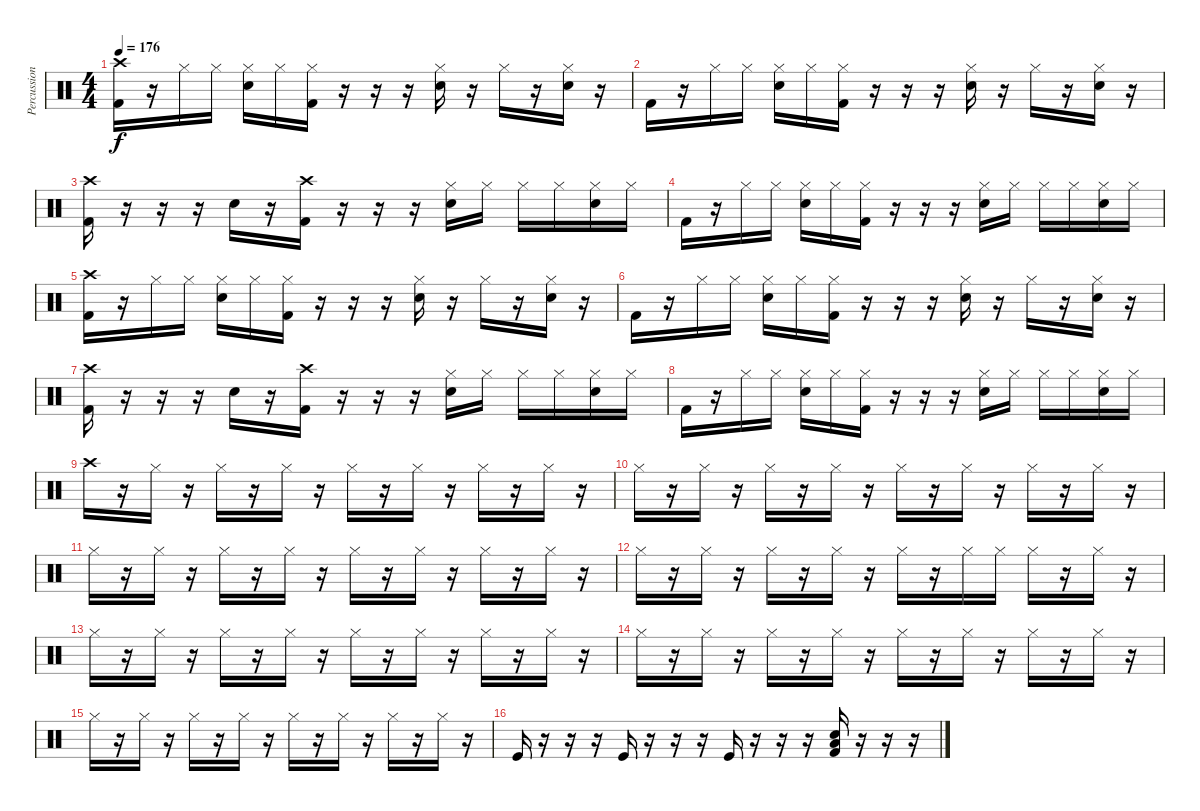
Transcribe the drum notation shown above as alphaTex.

\track ("Percussion" "Percussion") {instrument percussion}
\staff {score}
\articulation defaults
\ts (4 4)
\tempo 176
\clef neutral
\ks c
("Kick (hit) 2" "Crash high (hit)").16{dy f} r.16 "Hi-Hat (closed)".16 "Hi-Hat (closed)".16 ("Electric Snare (hit)" "Hi-Hat (closed)").16 "Hi-Hat (closed)".16 ("Kick (hit) 2" "Hi-Hat (closed)").16 r.16 r.16 r.16 ("Electric Snare (hit)" "Hi-Hat (closed)").16 r.16 "Hi-Hat (closed)".16 r.16 ("Electric Snare (hit)" "Hi-Hat (closed)").16 r.16 |
"Kick (hit) 2".16 r.16 "Hi-Hat (closed)".16 "Hi-Hat (closed)".16 ("Electric Snare (hit)" "Hi-Hat (closed)").16 "Hi-Hat (closed)".16 ("Kick (hit) 2" "Hi-Hat (closed)").16 r.16 r.16 r.16 ("Electric Snare (hit)" "Hi-Hat (closed)").16 r.16 "Hi-Hat (closed)".16 r.16 ("Electric Snare (hit)" "Hi-Hat (closed)").16 r.16 |
("Kick (hit) 2" "Crash high (hit)").16 r.16 r.16 r.16 "Electric Snare (hit)".16 r.16 ("Kick (hit) 2" "Crash high (hit)").16 r.16 r.16 r.16 ("Electric Snare (hit)" "Hi-Hat (closed)").16 "Hi-Hat (closed)".16 "Hi-Hat (closed)".16 "Hi-Hat (closed)".16 ("Electric Snare (hit)" "Hi-Hat (closed)").16 "Hi-Hat (closed)".16 |
"Kick (hit) 2".16 r.16 "Hi-Hat (closed)".16 "Hi-Hat (closed)".16 ("Electric Snare (hit)" "Hi-Hat (closed)").16 "Hi-Hat (closed)".16 ("Kick (hit) 2" "Hi-Hat (closed)").16 r.16 r.16 r.16 ("Electric Snare (hit)" "Hi-Hat (closed)").16 "Hi-Hat (closed)".16 "Hi-Hat (closed)".16 "Hi-Hat (closed)".16 ("Electric Snare (hit)" "Hi-Hat (closed)").16 "Hi-Hat (closed)".16 |
("Kick (hit) 2" "Crash high (hit)").16 r.16 "Hi-Hat (closed)".16 "Hi-Hat (closed)".16 ("Electric Snare (hit)" "Hi-Hat (closed)").16 "Hi-Hat (closed)".16 ("Kick (hit) 2" "Hi-Hat (closed)").16 r.16 r.16 r.16 ("Electric Snare (hit)" "Hi-Hat (closed)").16 r.16 "Hi-Hat (closed)".16 r.16 ("Electric Snare (hit)" "Hi-Hat (closed)").16 r.16 |
"Kick (hit) 2".16 r.16 "Hi-Hat (closed)".16 "Hi-Hat (closed)".16 ("Electric Snare (hit)" "Hi-Hat (closed)").16 "Hi-Hat (closed)".16 ("Kick (hit) 2" "Hi-Hat (closed)").16 r.16 r.16 r.16 ("Electric Snare (hit)" "Hi-Hat (closed)").16 r.16 "Hi-Hat (closed)".16 r.16 ("Electric Snare (hit)" "Hi-Hat (closed)").16 r.16 |
("Kick (hit) 2" "Crash high (hit)").16 r.16 r.16 r.16 "Electric Snare (hit)".16 r.16 ("Kick (hit) 2" "Crash high (hit)").16 r.16 r.16 r.16 ("Electric Snare (hit)" "Hi-Hat (closed)").16 "Hi-Hat (closed)".16 "Hi-Hat (closed)".16 "Hi-Hat (closed)".16 ("Electric Snare (hit)" "Hi-Hat (closed)").16 "Hi-Hat (closed)".16 |
"Kick (hit) 2".16 r.16 "Hi-Hat (closed)".16 "Hi-Hat (closed)".16 ("Electric Snare (hit)" "Hi-Hat (closed)").16 "Hi-Hat (closed)".16 ("Kick (hit) 2" "Hi-Hat (closed)").16 r.16 r.16 r.16 ("Electric Snare (hit)" "Hi-Hat (closed)").16 "Hi-Hat (closed)".16 "Hi-Hat (closed)".16 "Hi-Hat (closed)".16 ("Electric Snare (hit)" "Hi-Hat (closed)").16 "Hi-Hat (closed)".16 |
"Crash high (hit)".16 r.16 "Hi-Hat (closed)".16 r.16 "Hi-Hat (closed)".16 r.16 "Hi-Hat (closed)".16 r.16 "Hi-Hat (closed)".16 r.16 "Hi-Hat (closed)".16 r.16 "Hi-Hat (closed)".16 r.16 "Hi-Hat (closed)".16 r.16 |
"Hi-Hat (closed)".16 r.16 "Hi-Hat (closed)".16 r.16 "Hi-Hat (closed)".16 r.16 "Hi-Hat (closed)".16 r.16 "Hi-Hat (closed)".16 r.16 "Hi-Hat (closed)".16 r.16 "Hi-Hat (closed)".16 r.16 "Hi-Hat (closed)".16 r.16 |
"Hi-Hat (closed)".16 r.16 "Hi-Hat (closed)".16 r.16 "Hi-Hat (closed)".16 r.16 "Hi-Hat (closed)".16 r.16 "Hi-Hat (closed)".16 r.16 "Hi-Hat (closed)".16 r.16 "Hi-Hat (closed)".16 r.16 "Hi-Hat (closed)".16 r.16 |
"Hi-Hat (closed)".16 r.16 "Hi-Hat (closed)".16 r.16 "Hi-Hat (closed)".16 r.16 "Hi-Hat (closed)".16 r.16 "Hi-Hat (closed)".16 r.16 "Hi-Hat (closed)".16 "Hi-Hat (closed)".16 "Hi-Hat (closed)".16 r.16 "Hi-Hat (closed)".16 r.16 |
"Hi-Hat (closed)".16 r.16 "Hi-Hat (closed)".16 r.16 "Hi-Hat (closed)".16 r.16 "Hi-Hat (closed)".16 r.16 "Hi-Hat (closed)".16 r.16 "Hi-Hat (closed)".16 r.16 "Hi-Hat (closed)".16 r.16 "Hi-Hat (closed)".16 r.16 |
"Hi-Hat (closed)".16 r.16 "Hi-Hat (closed)".16 r.16 "Hi-Hat (closed)".16 r.16 "Hi-Hat (closed)".16 r.16 "Hi-Hat (closed)".16 r.16 "Hi-Hat (closed)".16 r.16 "Hi-Hat (closed)".16 r.16 "Hi-Hat (closed)".16 r.16 |
"Hi-Hat (closed)".16 r.16 "Hi-Hat (closed)".16 r.16 "Hi-Hat (closed)".16 r.16 "Hi-Hat (closed)".16 r.16 "Hi-Hat (closed)".16 r.16 "Hi-Hat (closed)".16 r.16 "Hi-Hat (closed)".16 r.16 "Hi-Hat (closed)".16 r.16 |
"Kick (hit)".16 r.16 r.16 r.16 "Kick (hit)".16 r.16 r.16 r.16 "Kick (hit)".16 r.16 r.16 r.16 ("Kick (hit) 2" "Electric Snare (hit)" "Low Floor Tom (hit)").16 r.16 r.16 r.16
